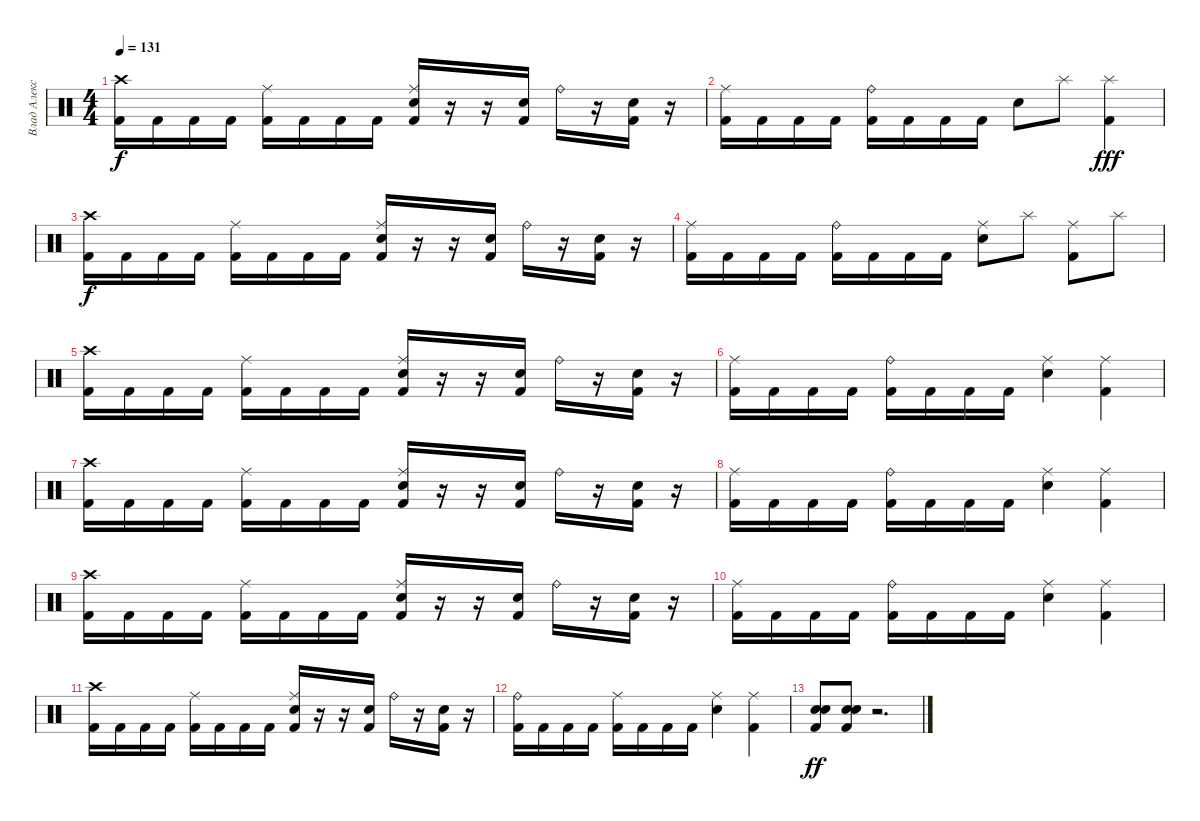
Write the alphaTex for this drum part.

\track ("Влад Алексеенко" "Влад Алекс") {instrument percussion}
\staff {score}
\articulation defaults
\ts (4 4)
\tempo 131
\clef neutral
\ks c
("Crash high (hit)" "Kick (hit) 2").16{dy f} "Kick (hit) 2".16 "Kick (hit) 2".16 "Kick (hit) 2".16 ("Ride (middle)" "Kick (hit) 2").16 "Kick (hit) 2".16 "Kick (hit) 2".16 "Kick (hit) 2".16 ("Ride (middle)" "Electric Snare (hit)" "Kick (hit) 2").16 r.16 r.16 ("Electric Snare (hit)" "Kick (hit) 2").16 "Ride (bell)".16 r.16 ("Electric Snare (hit)" "Kick (hit) 2").16 r.16 |
("Ride (middle)" "Kick (hit) 2").16 "Kick (hit) 2".16 "Kick (hit) 2".16 "Kick (hit) 2".16 ("Ride (bell)" "Kick (hit) 2").16 "Kick (hit) 2".16 "Kick (hit) 2".16 "Kick (hit) 2".16 "Electric Snare (hit)".8 "Splash (hit)".8 ("Splash (hit)" "Kick (hit) 2").4{dy fff} |
("Crash high (hit)" "Kick (hit) 2").16{dy f} "Kick (hit) 2".16 "Kick (hit) 2".16 "Kick (hit) 2".16 ("Ride (middle)" "Kick (hit) 2").16 "Kick (hit) 2".16 "Kick (hit) 2".16 "Kick (hit) 2".16 ("Ride (middle)" "Electric Snare (hit)" "Kick (hit) 2").16 r.16 r.16 ("Electric Snare (hit)" "Kick (hit) 2").16 "Ride (bell)".16 r.16 ("Electric Snare (hit)" "Kick (hit) 2").16 r.16 |
("Ride (middle)" "Kick (hit) 2").16 "Kick (hit) 2".16 "Kick (hit) 2".16 "Kick (hit) 2".16 ("Ride (bell)" "Kick (hit) 2").16 "Kick (hit) 2".16 "Kick (hit) 2".16 "Kick (hit) 2".16 ("Ride (middle)" "Electric Snare (hit)").8 "Splash (hit)".8 ("Ride (middle)" "Kick (hit) 2").8 "Splash (hit)".8 |
("Crash high (hit)" "Kick (hit) 2").16 "Kick (hit) 2".16 "Kick (hit) 2".16 "Kick (hit) 2".16 ("Ride (middle)" "Kick (hit) 2").16 "Kick (hit) 2".16 "Kick (hit) 2".16 "Kick (hit) 2".16 ("Ride (middle)" "Electric Snare (hit)" "Kick (hit) 2").16 r.16 r.16 ("Electric Snare (hit)" "Kick (hit) 2").16 "Ride (bell)".16 r.16 ("Electric Snare (hit)" "Kick (hit) 2").16 r.16 |
("Ride (middle)" "Kick (hit) 2").16 "Kick (hit) 2".16 "Kick (hit) 2".16 "Kick (hit) 2".16 ("Ride (bell)" "Kick (hit) 2").16 "Kick (hit) 2".16 "Kick (hit) 2".16 "Kick (hit) 2".16 ("Ride (middle)" "Electric Snare (hit)").4 ("Ride (middle)" "Kick (hit) 2").4 |
("Crash high (hit)" "Kick (hit) 2").16 "Kick (hit) 2".16 "Kick (hit) 2".16 "Kick (hit) 2".16 ("Ride (middle)" "Kick (hit) 2").16 "Kick (hit) 2".16 "Kick (hit) 2".16 "Kick (hit) 2".16 ("Ride (middle)" "Electric Snare (hit)" "Kick (hit) 2").16 r.16 r.16 ("Electric Snare (hit)" "Kick (hit) 2").16 "Ride (bell)".16 r.16 ("Electric Snare (hit)" "Kick (hit) 2").16 r.16 |
("Ride (middle)" "Kick (hit) 2").16 "Kick (hit) 2".16 "Kick (hit) 2".16 "Kick (hit) 2".16 ("Ride (bell)" "Kick (hit) 2").16 "Kick (hit) 2".16 "Kick (hit) 2".16 "Kick (hit) 2".16 ("Ride (middle)" "Electric Snare (hit)").4 ("Ride (middle)" "Kick (hit) 2").4 |
("Crash high (hit)" "Kick (hit) 2").16 "Kick (hit) 2".16 "Kick (hit) 2".16 "Kick (hit) 2".16 ("Ride (middle)" "Kick (hit) 2").16 "Kick (hit) 2".16 "Kick (hit) 2".16 "Kick (hit) 2".16 ("Ride (middle)" "Electric Snare (hit)" "Kick (hit) 2").16 r.16 r.16 ("Electric Snare (hit)" "Kick (hit) 2").16 "Ride (bell)".16 r.16 ("Electric Snare (hit)" "Kick (hit) 2").16 r.16 |
("Ride (middle)" "Kick (hit) 2").16 "Kick (hit) 2".16 "Kick (hit) 2".16 "Kick (hit) 2".16 ("Ride (bell)" "Kick (hit) 2").16 "Kick (hit) 2".16 "Kick (hit) 2".16 "Kick (hit) 2".16 ("Ride (middle)" "Electric Snare (hit)").4 ("Ride (middle)" "Kick (hit) 2").4 |
("Crash high (hit)" "Kick (hit) 2").16 "Kick (hit) 2".16 "Kick (hit) 2".16 "Kick (hit) 2".16 ("Ride (middle)" "Kick (hit) 2").16 "Kick (hit) 2".16 "Kick (hit) 2".16 "Kick (hit) 2".16 ("Ride (middle)" "Electric Snare (hit)" "Kick (hit) 2").16 r.16 r.16 ("Electric Snare (hit)" "Kick (hit) 2").16 "Ride (bell)".16 r.16 ("Electric Snare (hit)" "Kick (hit) 2").16 r.16 |
("Ride (bell)" "Kick (hit) 2").16 "Kick (hit) 2".16 "Kick (hit) 2".16 "Kick (hit) 2".16 ("Ride (middle)" "Kick (hit) 2").16 "Kick (hit) 2".16 "Kick (hit) 2".16 "Kick (hit) 2".16 ("Ride (middle)" "Electric Snare (hit)").4 ("Ride (middle)" "Kick (hit) 2").4 |
("Electric Snare (hit)" "Electric Snare (hit)" "Kick (hit) 2").8{dy ff} ("Electric Snare (hit)" "Electric Snare (hit)" "Kick (hit) 2").8 r.2{d}
